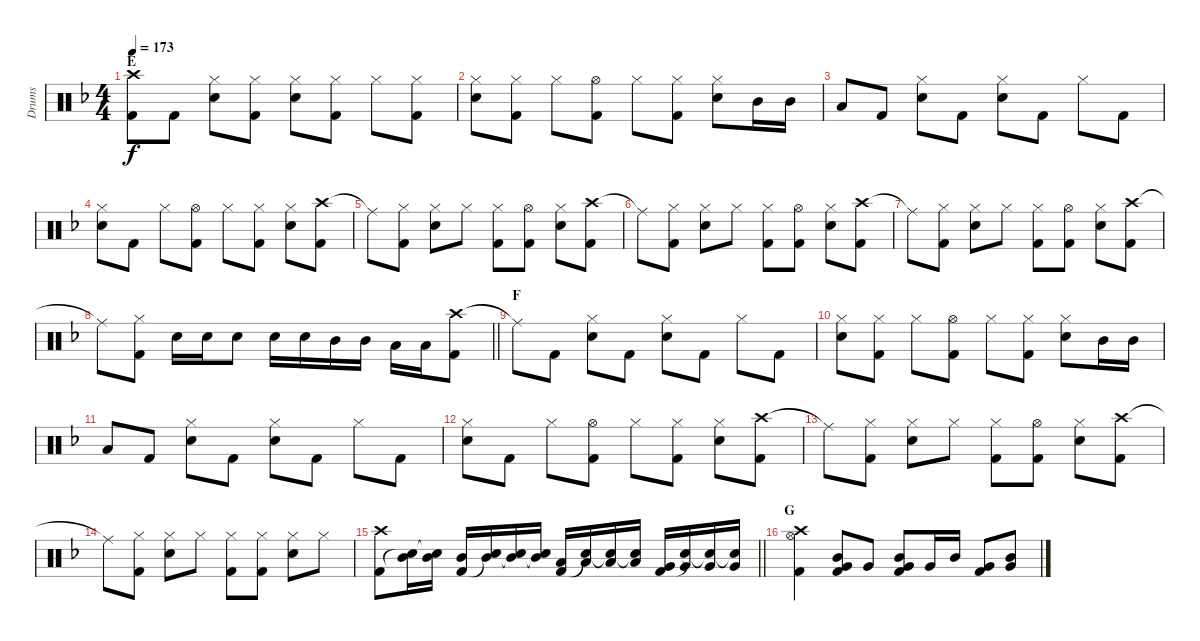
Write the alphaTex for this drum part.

\track ("Drums" "Drums") {instrument percussion}
\staff {score}
\articulation defaults
\ts (4 4)
\section ("" "E")
\tempo 173
\clef neutral
\ks dminor
("Crash high (hit)" "Kick (hit) 2").8{dy f} "Kick (hit) 2".8 ("Hi-Hat (closed)" "Snare (hit) 2").8 ("Hi-Hat (closed)" "Kick (hit) 2").8 ("Hi-Hat (closed)" "Snare (hit) 2").8 ("Hi-Hat (closed)" "Kick (hit) 2").8 "Hi-Hat (closed)".8 ("Hi-Hat (closed)" "Kick (hit) 2").8 |
("Hi-Hat (closed)" "Snare (hit) 2").8 ("Hi-Hat (closed)" "Kick (hit) 2").8 "Hi-Hat (closed)".8 ("Hi-Hat (open)" "Kick (hit) 2").8 "Hi-Hat (closed)".8 ("Hi-Hat (closed)" "Kick (hit) 2").8 ("Hi-Hat (closed)" "Snare (hit) 2").8 "Mid Tom (hit)".16 "Mid Tom (hit)".16 |
"Low Tom (hit)".8 "Kick (hit) 2".8 ("Hi-Hat (closed)" "Snare (hit) 2").8 "Kick (hit) 2".8 ("Hi-Hat (closed)" "Snare (hit) 2").8 "Kick (hit) 2".8 "Hi-Hat (closed)".8 "Kick (hit) 2".8 |
("Hi-Hat (closed)" "Snare (hit) 2").8 "Kick (hit) 2".8 "Hi-Hat (closed)".8 ("Hi-Hat (open)" "Kick (hit) 2").8 "Hi-Hat (closed)".8 ("Hi-Hat (closed)" "Kick (hit) 2").8 ("Hi-Hat (closed)" "Snare (hit) 2").8 ("Crash high (hit)" "Kick (hit) 2").8 |
"Ride (middle)"{t}.8 ("Hi-Hat (closed)" "Kick (hit) 2").8 ("Hi-Hat (closed)" "Snare (hit) 2").8 "Hi-Hat (closed)".8 ("Hi-Hat (closed)" "Kick (hit) 2").8 ("Hi-Hat (open)" "Kick (hit) 2").8 ("Hi-Hat (closed)" "Snare (hit) 2").8 ("Crash high (hit)" "Kick (hit) 2").8 |
"Ride (middle)"{t}.8 ("Hi-Hat (closed)" "Kick (hit) 2").8 ("Hi-Hat (closed)" "Snare (hit) 2").8 "Hi-Hat (closed)".8 ("Hi-Hat (closed)" "Kick (hit) 2").8 ("Hi-Hat (open)" "Kick (hit) 2").8 ("Hi-Hat (closed)" "Snare (hit) 2").8 ("Crash high (hit)" "Kick (hit) 2").8 |
"Ride (middle)"{t}.8 ("Hi-Hat (closed)" "Kick (hit) 2").8 ("Hi-Hat (closed)" "Snare (hit) 2").8 "Hi-Hat (closed)".8 ("Hi-Hat (closed)" "Kick (hit) 2").8 ("Hi-Hat (open)" "Kick (hit) 2").8 ("Hi-Hat (closed)" "Snare (hit) 2").8 ("Crash high (hit)" "Kick (hit) 2").8 |
\barLineRight lightlight "Ride (middle)"{t}.8
("Hi-Hat (closed)" "Kick (hit) 2").8 "Snare (hit) 2".16 "Snare (hit) 2".16 "Snare (hit) 2".8 "Snare (hit) 2".16 "Snare (hit) 2".16 "Mid Tom (hit)".16 "Mid Tom (hit)".16 "Low Tom (hit)".16 "Low Tom (hit)".16 ("Crash high (hit)" "Kick (hit) 2").8 |
\section ("" "F")
"Ride (middle)"{t}.8 "Kick (hit) 2".8 ("Hi-Hat (closed)" "Snare (hit) 2").8 "Kick (hit) 2".8 ("Hi-Hat (closed)" "Snare (hit) 2").8 "Kick (hit) 2".8 "Hi-Hat (closed)".8 "Kick (hit) 2".8 |
("Hi-Hat (closed)" "Snare (hit) 2").8 ("Hi-Hat (closed)" "Kick (hit) 2").8 "Hi-Hat (closed)".8 ("Hi-Hat (open)" "Kick (hit) 2").8 "Hi-Hat (closed)".8 ("Hi-Hat (closed)" "Kick (hit) 2").8 ("Hi-Hat (closed)" "Snare (hit) 2").8 "Mid Tom (hit)".16 "Mid Tom (hit)".16 |
"Low Tom (hit)".8 "Kick (hit) 2".8 ("Hi-Hat (closed)" "Snare (hit) 2").8 "Kick (hit) 2".8 ("Hi-Hat (closed)" "Snare (hit) 2").8 "Kick (hit) 2".8 "Hi-Hat (closed)".8 "Kick (hit) 2".8 |
("Hi-Hat (closed)" "Snare (hit) 2").8 "Kick (hit) 2".8 "Hi-Hat (closed)".8 ("Hi-Hat (open)" "Kick (hit) 2").8 "Hi-Hat (closed)".8 ("Hi-Hat (closed)" "Kick (hit) 2").8 ("Hi-Hat (closed)" "Snare (hit) 2").8 ("Crash high (hit)" "Kick (hit) 2").8 |
"Ride (middle)"{t}.8 ("Hi-Hat (closed)" "Kick (hit) 2").8 ("Hi-Hat (closed)" "Snare (hit) 2").8 "Hi-Hat (closed)".8 ("Hi-Hat (closed)" "Kick (hit) 2").8 ("Hi-Hat (open)" "Kick (hit) 2").8 ("Hi-Hat (closed)" "Snare (hit) 2").8 ("Crash high (hit)" "Kick (hit) 2").8 |
"Ride (middle)"{t}.8 ("Hi-Hat (closed)" "Kick (hit) 2").8 ("Hi-Hat (closed)" "Snare (hit) 2").8 "Hi-Hat (closed)".8 ("Hi-Hat (closed)" "Kick (hit) 2").8 ("Hi-Hat (closed)" "Kick (hit) 2").8 ("Hi-Hat (closed)" "Snare (hit) 2").8 "Hi-Hat (closed)".8 |
\barLineRight lightlight
("Crash high (hit)" "Kick (hit) 2").8 ("Mid Tom (hit)" "Snare (hit)"{t}).16 ("Mid Tom (hit)" "Snare (hit)"{t}).16 ("Mid Tom (hit)" "Kick (hit) 2").16 ("Mid Tom (hit)" "Snare (hit)"{t}).16 ("Mid Tom (hit)" "Snare (hit)"{t}).16 ("Mid Tom (hit)" "Snare (hit)"{t}).16 ("Low Tom (hit)" "Kick (hit) 2").16 ("Low Tom (hit)" "Snare (hit)"{t}).16 ("Low Tom (hit)" "Snare (hit)"{t}).16 ("Low Tom (hit)" "Snare (hit)"{t}).16 ("Very Low Tom (hit)" "Kick (hit) 2").16 ("Very Low Tom (hit)" "Snare (hit)"{t}).16 ("Very Low Tom (hit)" "Snare (hit)"{t}).16 ("Very Low Tom (hit)" "Snare (hit)"{t}).16 |
\section ("" "G")
("Crash high (hit)" "Hi-Hat (open)" "Kick (hit) 2").4 ("Mid Tom (hit)" "Very Low Tom (hit)" "Kick (hit) 2").8 "Very Low Tom (hit)".8 ("Mid Tom (hit)" "Very Low Tom (hit)" "Kick (hit) 2").8 "Very Low Tom (hit)".16 "Mid Tom (hit)".16 ("Very Low Tom (hit)" "Kick (hit) 2").8 ("Mid Tom (hit)" "Very Low Tom (hit)").8
